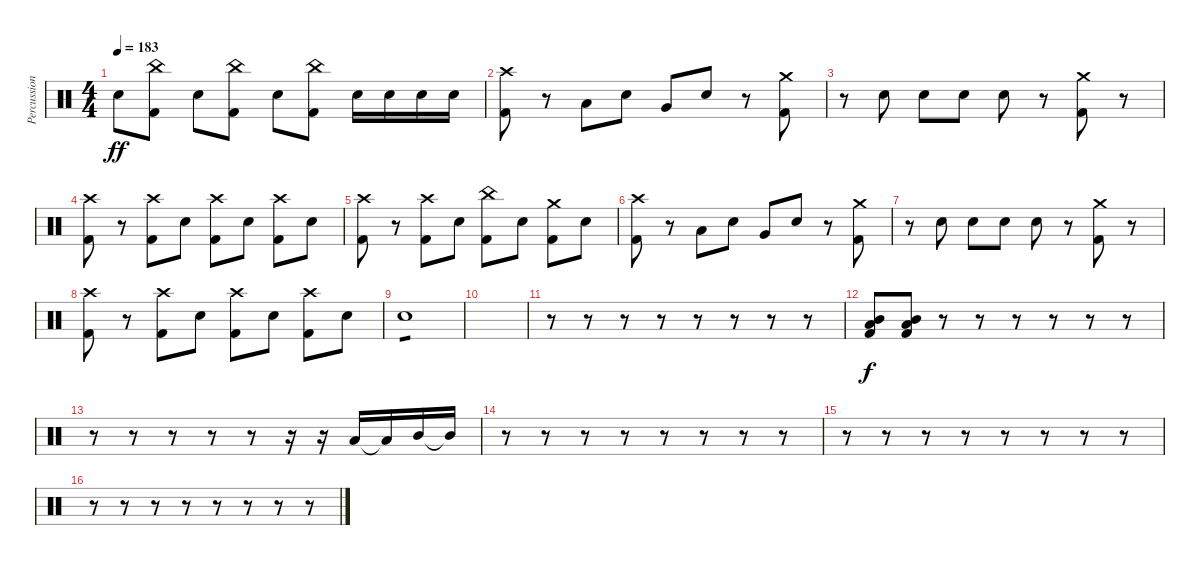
\track ("Percussion" "Percussion") {instrument percussion}
\staff {score}
\articulation defaults
\ts (4 4)
\tempo 183
\clef neutral
\ks c "Electric Snare (hit)".8{dy ff}
("China (hit)" "Kick (hit) 2").8 "Electric Snare (hit)".8 ("China (hit)" "Kick (hit) 2").8 "Electric Snare (hit)".8 ("China (hit)" "Kick (hit) 2").8 "Electric Snare (hit)".16 "Electric Snare (hit)".16 "Electric Snare (hit)".16 "Electric Snare (hit)".16 |
("Crash high (hit)" "Kick (hit) 2").8 r.8 "Low Tom (hit)".8 "Electric Snare (hit)".8 "Very Low Tom (hit)".8 "Electric Snare (hit)".8 r.8 ("Crash medium (hit)" "Kick (hit) 2").8 |
r.8 "Electric Snare (hit)".8 "Electric Snare (hit)".8 "Electric Snare (hit)".8 "Electric Snare (hit)".8 r.8 ("Crash medium (hit)" "Kick (hit) 2").8 r.8 |
("Crash high (hit)" "Kick (hit) 2").8 r.8 ("Crash high (hit)" "Kick (hit) 2").8 "Electric Snare (hit)".8 ("Crash high (hit)" "Kick (hit) 2").8 "Electric Snare (hit)".8 ("Crash high (hit)" "Kick (hit) 2").8 "Electric Snare (hit)".8 |
("Crash high (hit)" "Kick (hit) 2").8 r.8 ("Crash high (hit)" "Kick (hit) 2").8 "Electric Snare (hit)".8 ("China (hit)" "Kick (hit) 2").8 "Electric Snare (hit)".8 ("Crash medium (hit)" "Kick (hit) 2").8 "Electric Snare (hit)".8 |
("Crash high (hit)" "Kick (hit) 2").8 r.8 "Low Tom (hit)".8 "Electric Snare (hit)".8 "Very Low Tom (hit)".8 "Electric Snare (hit)".8 r.8 ("Crash medium (hit)" "Kick (hit) 2").8 |
r.8 "Electric Snare (hit)".8 "Electric Snare (hit)".8 "Electric Snare (hit)".8 "Electric Snare (hit)".8 r.8 ("Crash medium (hit)" "Kick (hit) 2").8 r.8 |
("Crash high (hit)" "Kick (hit) 2").8 r.8 ("Crash high (hit)" "Kick (hit) 2").8 "Electric Snare (hit)".8 ("Crash high (hit)" "Kick (hit) 2").8 "Electric Snare (hit)".8 ("Crash high (hit)" "Kick (hit) 2").8 "Electric Snare (hit)".8 |
"Electric Snare (hit)".1{tp 1} |
|
r.8 r.8 r.8 r.8 r.8 r.8 r.8 r.8 |
("Low Tom (hit)" "Mid Tom (hit)" "Kick (hit) 2").8{dy f} ("Low Tom (hit)" "Mid Tom (hit)" "Kick (hit) 2").8 r.8 r.8 r.8 r.8 r.8 r.8 |
r.8 r.8 r.8 r.8 r.8 r.16 r.16 "Low Tom (hit)".16 "Low Tom (hit)"{t}.16 "Mid Tom (hit)".16 "Mid Tom (hit)"{t}.16 |
r.8 r.8 r.8 r.8 r.8 r.8 r.8 r.8 |
r.8 r.8 r.8 r.8 r.8 r.8 r.8 r.8 |
r.8 r.8 r.8 r.8 r.8 r.8 r.8 r.8
